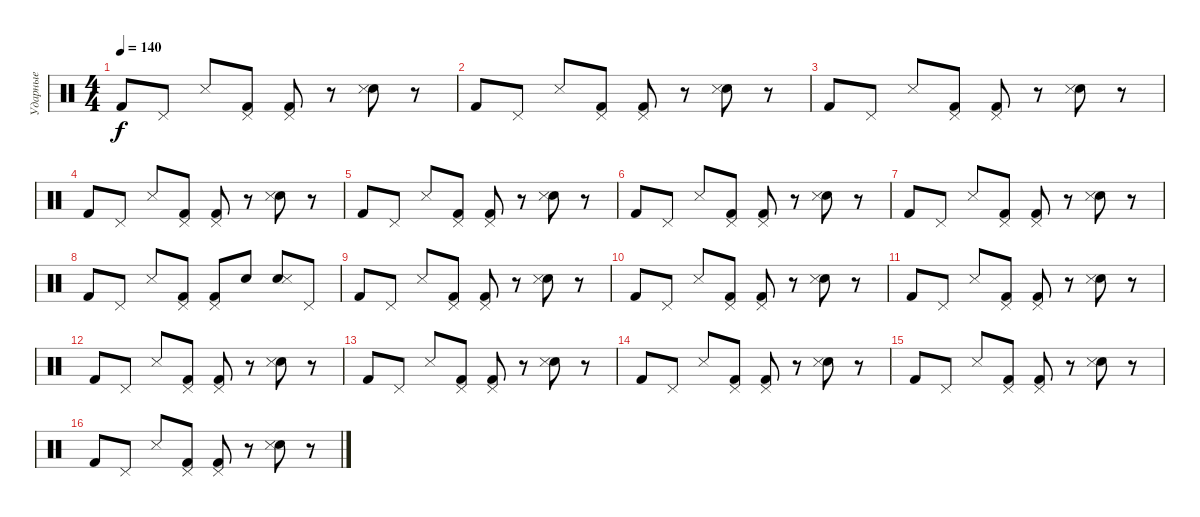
\track ("Ударные" "Ударные") {instrument percussion}
\staff {score}
\articulation defaults
\ts (4 4)
\tempo 140
\clef neutral
\ks c "Kick (hit) 2".8{dy f} "Pedal Hi-Hat (hit)".8 "Metronome (hit)".8
("Kick (hit) 2" "Pedal Hi-Hat (hit)").8 ("Kick (hit) 2" "Pedal Hi-Hat (hit)").8 r.8 ("Electric Snare (hit)" "Metronome (hit)").8 r.8 |
"Kick (hit) 2".8 "Pedal Hi-Hat (hit)".8 "Metronome (hit)".8 ("Kick (hit) 2" "Pedal Hi-Hat (hit)").8 ("Kick (hit) 2" "Pedal Hi-Hat (hit)").8 r.8 ("Electric Snare (hit)" "Metronome (hit)").8 r.8 |
"Kick (hit) 2".8 "Pedal Hi-Hat (hit)".8 "Metronome (hit)".8 ("Kick (hit) 2" "Pedal Hi-Hat (hit)").8 ("Kick (hit) 2" "Pedal Hi-Hat (hit)").8 r.8 ("Electric Snare (hit)" "Metronome (hit)").8 r.8 |
"Kick (hit) 2".8 "Pedal Hi-Hat (hit)".8 "Metronome (hit)".8 ("Kick (hit) 2" "Pedal Hi-Hat (hit)").8 ("Kick (hit) 2" "Pedal Hi-Hat (hit)").8 r.8 ("Electric Snare (hit)" "Metronome (hit)").8 r.8 |
"Kick (hit) 2".8 "Pedal Hi-Hat (hit)".8 "Metronome (hit)".8 ("Kick (hit) 2" "Pedal Hi-Hat (hit)").8 ("Kick (hit) 2" "Pedal Hi-Hat (hit)").8 r.8 ("Electric Snare (hit)" "Metronome (hit)").8 r.8 |
"Kick (hit) 2".8 "Pedal Hi-Hat (hit)".8 "Metronome (hit)".8 ("Kick (hit) 2" "Pedal Hi-Hat (hit)").8 ("Kick (hit) 2" "Pedal Hi-Hat (hit)").8 r.8 ("Electric Snare (hit)" "Metronome (hit)").8 r.8 |
"Kick (hit) 2".8 "Pedal Hi-Hat (hit)".8 "Metronome (hit)".8 ("Kick (hit) 2" "Pedal Hi-Hat (hit)").8 ("Kick (hit) 2" "Pedal Hi-Hat (hit)").8 r.8 ("Electric Snare (hit)" "Metronome (hit)").8 r.8 |
"Kick (hit) 2".8 "Pedal Hi-Hat (hit)".8 "Metronome (hit)".8 ("Kick (hit) 2" "Pedal Hi-Hat (hit)").8 ("Kick (hit) 2" "Pedal Hi-Hat (hit)").8 "Electric Snare (hit)".8 ("Electric Snare (hit)" "Metronome (hit)").8 "Pedal Hi-Hat (hit)".8 |
"Kick (hit) 2".8 "Pedal Hi-Hat (hit)".8 "Metronome (hit)".8 ("Kick (hit) 2" "Pedal Hi-Hat (hit)").8 ("Kick (hit) 2" "Pedal Hi-Hat (hit)").8 r.8 ("Electric Snare (hit)" "Metronome (hit)").8 r.8 |
"Kick (hit) 2".8 "Pedal Hi-Hat (hit)".8 "Metronome (hit)".8 ("Kick (hit) 2" "Pedal Hi-Hat (hit)").8 ("Kick (hit) 2" "Pedal Hi-Hat (hit)").8 r.8 ("Electric Snare (hit)" "Metronome (hit)").8 r.8 |
"Kick (hit) 2".8 "Pedal Hi-Hat (hit)".8 "Metronome (hit)".8 ("Kick (hit) 2" "Pedal Hi-Hat (hit)").8 ("Kick (hit) 2" "Pedal Hi-Hat (hit)").8 r.8 ("Electric Snare (hit)" "Metronome (hit)").8 r.8 |
"Kick (hit) 2".8 "Pedal Hi-Hat (hit)".8 "Metronome (hit)".8 ("Kick (hit) 2" "Pedal Hi-Hat (hit)").8 ("Kick (hit) 2" "Pedal Hi-Hat (hit)").8 r.8 ("Electric Snare (hit)" "Metronome (hit)").8 r.8 |
"Kick (hit) 2".8 "Pedal Hi-Hat (hit)".8 "Metronome (hit)".8 ("Kick (hit) 2" "Pedal Hi-Hat (hit)").8 ("Kick (hit) 2" "Pedal Hi-Hat (hit)").8 r.8 ("Electric Snare (hit)" "Metronome (hit)").8 r.8 |
"Kick (hit) 2".8 "Pedal Hi-Hat (hit)".8 "Metronome (hit)".8 ("Kick (hit) 2" "Pedal Hi-Hat (hit)").8 ("Kick (hit) 2" "Pedal Hi-Hat (hit)").8 r.8 ("Electric Snare (hit)" "Metronome (hit)").8 r.8 |
"Kick (hit) 2".8 "Pedal Hi-Hat (hit)".8 "Metronome (hit)".8 ("Kick (hit) 2" "Pedal Hi-Hat (hit)").8 ("Kick (hit) 2" "Pedal Hi-Hat (hit)").8 r.8 ("Electric Snare (hit)" "Metronome (hit)").8 r.8 |
"Kick (hit) 2".8 "Pedal Hi-Hat (hit)".8 "Metronome (hit)".8 ("Kick (hit) 2" "Pedal Hi-Hat (hit)").8 ("Kick (hit) 2" "Pedal Hi-Hat (hit)").8 r.8 ("Electric Snare (hit)" "Metronome (hit)").8 r.8
